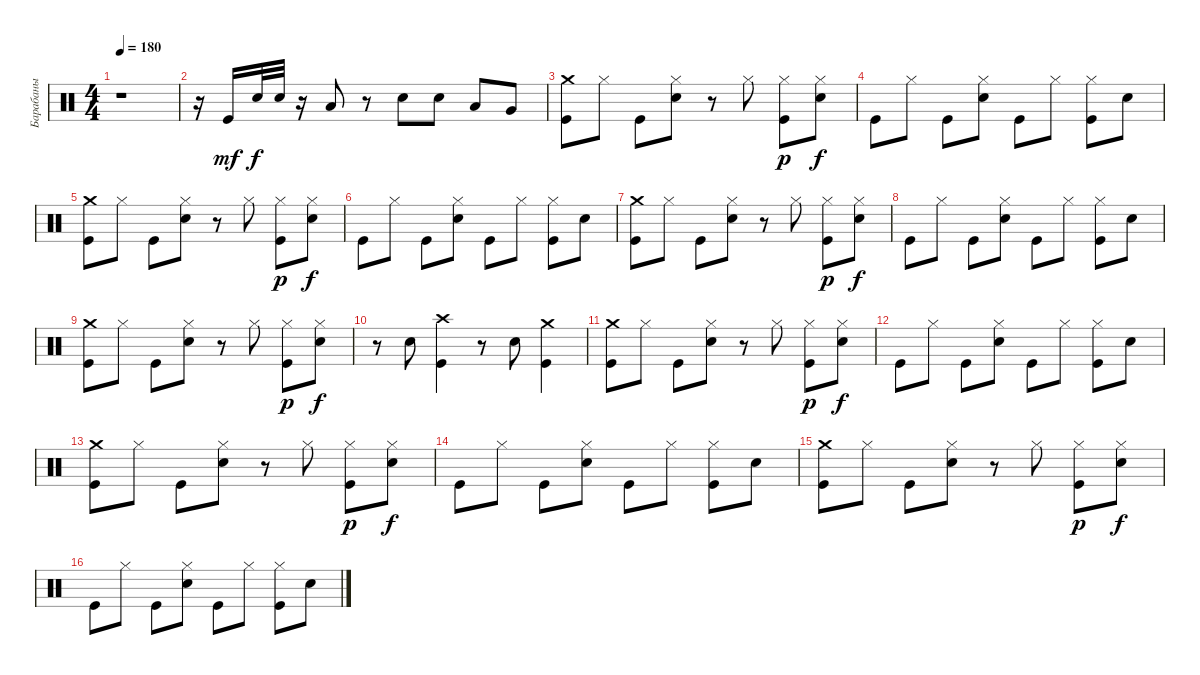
\track ("Барабаны" "Барабаны") {instrument percussion}
\staff {score}
\articulation defaults
\ts (4 4)
\tempo 180
\clef neutral
\ks c
r.1{dy mf} |
r.16 "Kick (hit)".16 "Electric Snare (hit)".32{dy f} "Electric Snare (hit)".32 r.16 "Low Floor Tom (hit)".8 r.8 "Electric Snare (hit)".8 "Electric Snare (hit)".8 "Low Tom (hit)".8 "Very Low Tom (hit)".8 |
("Crash medium (hit)" "Kick (hit)").8 "Hi-Hat (closed)".8 "Kick (hit)".8 ("Electric Snare (hit)" "Hi-Hat (closed)").8 r.8 "Hi-Hat (closed)".8 ("Kick (hit)" "Hi-Hat (closed)").8{dy p} ("Hi-Hat (closed)" "Electric Snare (hit)").8{dy f} |
"Kick (hit)".8 "Hi-Hat (closed)".8 "Kick (hit)".8 ("Electric Snare (hit)" "Hi-Hat (closed)").8 "Kick (hit)".8 "Hi-Hat (closed)".8 ("Kick (hit)" "Hi-Hat (closed)").8 "Electric Snare (hit)".8 |
("Crash medium (hit)" "Kick (hit)").8 "Hi-Hat (closed)".8 "Kick (hit)".8 ("Electric Snare (hit)" "Hi-Hat (closed)").8 r.8 "Hi-Hat (closed)".8 ("Kick (hit)" "Hi-Hat (closed)").8{dy p} ("Electric Snare (hit)" "Hi-Hat (closed)").8{dy f} |
"Kick (hit)".8 "Hi-Hat (closed)".8 "Kick (hit)".8 ("Electric Snare (hit)" "Hi-Hat (closed)").8 "Kick (hit)".8 "Hi-Hat (closed)".8 ("Kick (hit)" "Hi-Hat (closed)").8 "Electric Snare (hit)".8 |
("Kick (hit)" "Crash medium (hit)").8 "Hi-Hat (closed)".8 "Kick (hit)".8 ("Electric Snare (hit)" "Hi-Hat (closed)").8 r.8 "Hi-Hat (closed)".8 ("Kick (hit)" "Hi-Hat (closed)").8{dy p} ("Hi-Hat (closed)" "Electric Snare (hit)").8{dy f} |
"Kick (hit)".8 "Hi-Hat (closed)".8 "Kick (hit)".8 ("Hi-Hat (closed)" "Electric Snare (hit)").8 "Kick (hit)".8 "Hi-Hat (closed)".8 ("Hi-Hat (closed)" "Kick (hit)").8 "Electric Snare (hit)".8 |
("Kick (hit)" "Crash medium (hit)").8 "Hi-Hat (closed)".8 "Kick (hit)".8 ("Electric Snare (hit)" "Hi-Hat (closed)").8 r.8 "Hi-Hat (closed)".8 ("Kick (hit)" "Hi-Hat (closed)").8{dy p} ("Electric Snare (hit)" "Hi-Hat (closed)").8{dy f} |
r.8 "Electric Snare (hit)".8 ("Kick (hit)" "Crash high (hit)").4 r.8 "Electric Snare (hit)".8 ("Crash medium (hit)" "Kick (hit)").4 |
("Kick (hit)" "Crash medium (hit)").8 "Hi-Hat (closed)".8 "Kick (hit)".8 ("Electric Snare (hit)" "Hi-Hat (closed)").8 r.8 "Hi-Hat (closed)".8 ("Kick (hit)" "Hi-Hat (closed)").8{dy p} ("Hi-Hat (closed)" "Electric Snare (hit)").8{dy f} |
"Kick (hit)".8 "Hi-Hat (closed)".8 "Kick (hit)".8 ("Hi-Hat (closed)" "Electric Snare (hit)").8 "Kick (hit)".8 "Hi-Hat (closed)".8 ("Hi-Hat (closed)" "Kick (hit)").8 "Electric Snare (hit)".8 |
("Kick (hit)" "Crash medium (hit)").8 "Hi-Hat (closed)".8 "Kick (hit)".8 ("Electric Snare (hit)" "Hi-Hat (closed)").8 r.8 "Hi-Hat (closed)".8 ("Kick (hit)" "Hi-Hat (closed)").8{dy p} ("Hi-Hat (closed)" "Electric Snare (hit)").8{dy f} |
"Kick (hit)".8 "Hi-Hat (closed)".8 "Kick (hit)".8 ("Electric Snare (hit)" "Hi-Hat (closed)").8 "Kick (hit)".8 "Hi-Hat (closed)".8 ("Hi-Hat (closed)" "Kick (hit)").8 "Electric Snare (hit)".8 |
("Kick (hit)" "Crash medium (hit)").8 "Hi-Hat (closed)".8 "Kick (hit)".8 ("Hi-Hat (closed)" "Electric Snare (hit)").8 r.8 "Hi-Hat (closed)".8 ("Kick (hit)" "Hi-Hat (closed)").8{dy p} ("Hi-Hat (closed)" "Electric Snare (hit)").8{dy f} |
"Kick (hit)".8 "Hi-Hat (closed)".8 "Kick (hit)".8 ("Hi-Hat (closed)" "Electric Snare (hit)").8 "Kick (hit)".8 "Hi-Hat (closed)".8 ("Kick (hit)" "Hi-Hat (closed)").8 "Electric Snare (hit)".8
